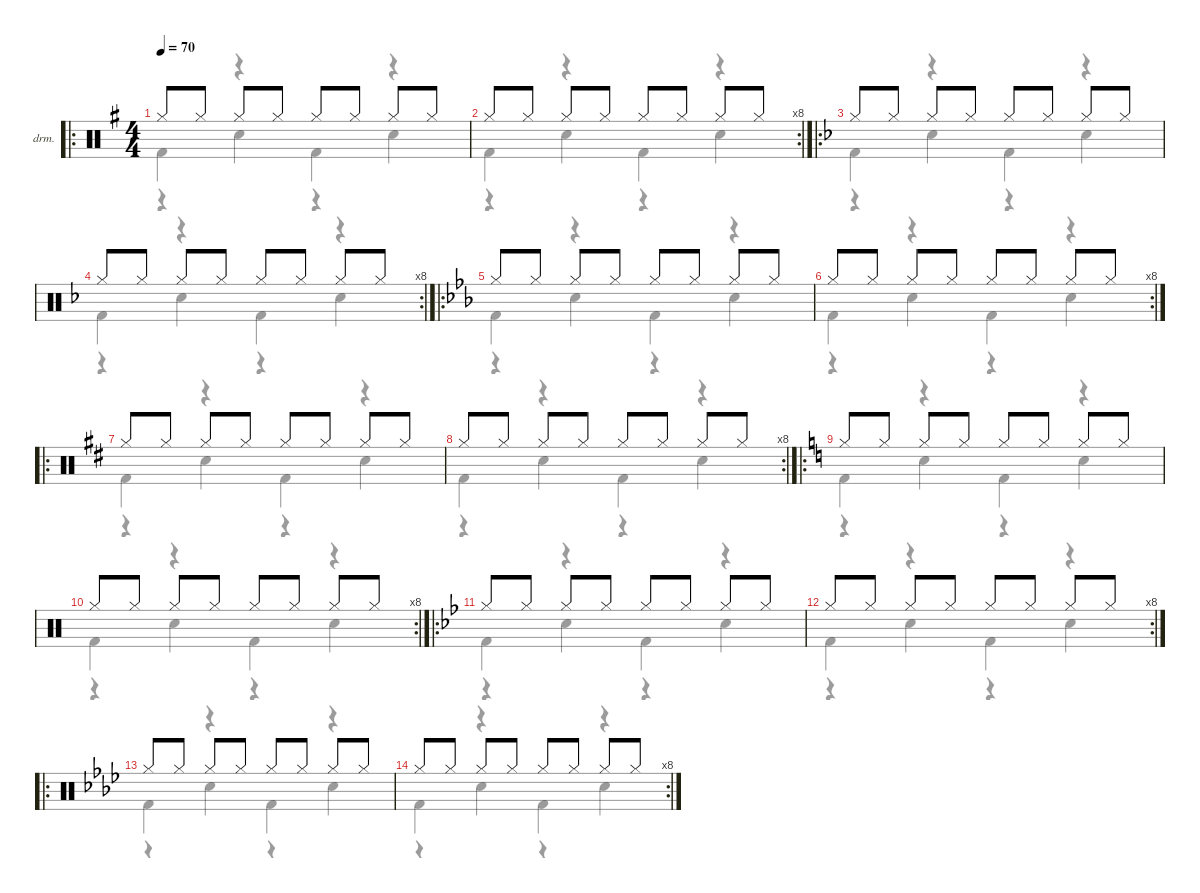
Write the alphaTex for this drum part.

\defaultSystemsLayout 4
\hideDynamics
\bracketExtendMode nobrackets
\firstSystemTrackNameOrientation horizontal
\otherSystemsTrackNameOrientation horizontal
\track ("Drumkit" "drm.") {defaultSystemsLayout 1 instrument percussion}
\staff {score}
\articulation defaults
\voice
\ro
\ts (4 4)
\tempo 70
\clef neutral
\ks g "Hi-Hat (closed)"{acc forcenatural}.8{dy fff beam Up} "Hi-Hat (closed)"{acc forcenatural}.8{beam Up} "Hi-Hat (closed)"{acc forcenatural}.8{beam Up} "Hi-Hat (closed)"{acc forcenatural}.8{beam Up} "Hi-Hat (closed)"{acc forcenatural}.8{beam Up} "Hi-Hat (closed)"{acc forcenatural}.8{beam Up} "Hi-Hat (closed)"{acc forcenatural}.8{beam Up} "Hi-Hat (closed)"{acc forcenatural}.8{beam Up}
|
\rc 8 "Hi-Hat (closed)"{acc forcenatural}.8{beam Up} "Hi-Hat (closed)"{acc forcenatural}.8{beam Up} "Hi-Hat (closed)"{acc forcenatural}.8{beam Up} "Hi-Hat (closed)"{acc forcenatural}.8{beam Up} "Hi-Hat (closed)"{acc forcenatural}.8{beam Up} "Hi-Hat (closed)"{acc forcenatural}.8{beam Up} "Hi-Hat (closed)"{acc forcenatural}.8{beam Up} "Hi-Hat (closed)"{acc forcenatural}.8{beam Up}
|
\ro
\ks f "Hi-Hat (closed)"{acc forcenatural}.8{beam Up} "Hi-Hat (closed)"{acc forcenatural}.8{beam Up} "Hi-Hat (closed)"{acc forcenatural}.8{beam Up} "Hi-Hat (closed)"{acc forcenatural}.8{beam Up} "Hi-Hat (closed)"{acc forcenatural}.8{beam Up} "Hi-Hat (closed)"{acc forcenatural}.8{beam Up} "Hi-Hat (closed)"{acc forcenatural}.8{beam Up} "Hi-Hat (closed)"{acc forcenatural}.8{beam Up}
|
\rc 8 "Hi-Hat (closed)"{acc forcenatural}.8{beam Up} "Hi-Hat (closed)"{acc forcenatural}.8{beam Up} "Hi-Hat (closed)"{acc forcenatural}.8{beam Up} "Hi-Hat (closed)"{acc forcenatural}.8{beam Up} "Hi-Hat (closed)"{acc forcenatural}.8{beam Up} "Hi-Hat (closed)"{acc forcenatural}.8{beam Up} "Hi-Hat (closed)"{acc forcenatural}.8{beam Up} "Hi-Hat (closed)"{acc forcenatural}.8{beam Up}
|
\ro
\ks eb "Hi-Hat (closed)"{acc forcenatural}.8{beam Up} "Hi-Hat (closed)"{acc forcenatural}.8{beam Up} "Hi-Hat (closed)"{acc forcenatural}.8{beam Up} "Hi-Hat (closed)"{acc forcenatural}.8{beam Up} "Hi-Hat (closed)"{acc forcenatural}.8{beam Up} "Hi-Hat (closed)"{acc forcenatural}.8{beam Up} "Hi-Hat (closed)"{acc forcenatural}.8{beam Up} "Hi-Hat (closed)"{acc forcenatural}.8{beam Up}
|
\rc 8 "Hi-Hat (closed)"{acc forcenatural}.8{beam Up} "Hi-Hat (closed)"{acc forcenatural}.8{beam Up} "Hi-Hat (closed)"{acc forcenatural}.8{beam Up} "Hi-Hat (closed)"{acc forcenatural}.8{beam Up} "Hi-Hat (closed)"{acc forcenatural}.8{beam Up} "Hi-Hat (closed)"{acc forcenatural}.8{beam Up} "Hi-Hat (closed)"{acc forcenatural}.8{beam Up} "Hi-Hat (closed)"{acc forcenatural}.8{beam Up}
|
\ro
\ks d "Hi-Hat (closed)"{acc forcenatural}.8{beam Up} "Hi-Hat (closed)"{acc forcenatural}.8{beam Up} "Hi-Hat (closed)"{acc forcenatural}.8{beam Up} "Hi-Hat (closed)"{acc forcenatural}.8{beam Up} "Hi-Hat (closed)"{acc forcenatural}.8{beam Up} "Hi-Hat (closed)"{acc forcenatural}.8{beam Up} "Hi-Hat (closed)"{acc forcenatural}.8{beam Up} "Hi-Hat (closed)"{acc forcenatural}.8{beam Up}
|
\rc 8 "Hi-Hat (closed)"{acc forcenatural}.8{beam Up} "Hi-Hat (closed)"{acc forcenatural}.8{beam Up} "Hi-Hat (closed)"{acc forcenatural}.8{beam Up} "Hi-Hat (closed)"{acc forcenatural}.8{beam Up} "Hi-Hat (closed)"{acc forcenatural}.8{beam Up} "Hi-Hat (closed)"{acc forcenatural}.8{beam Up} "Hi-Hat (closed)"{acc forcenatural}.8{beam Up} "Hi-Hat (closed)"{acc forcenatural}.8{beam Up}
|
\ro
\ks c "Hi-Hat (closed)".8{beam Up} "Hi-Hat (closed)".8{beam Up} "Hi-Hat (closed)".8{beam Up} "Hi-Hat (closed)".8{beam Up} "Hi-Hat (closed)".8{beam Up} "Hi-Hat (closed)".8{beam Up} "Hi-Hat (closed)".8{beam Up} "Hi-Hat (closed)".8{beam Up}
|
\rc 8 "Hi-Hat (closed)".8{beam Up} "Hi-Hat (closed)".8{beam Up} "Hi-Hat (closed)".8{beam Up} "Hi-Hat (closed)".8{beam Up} "Hi-Hat (closed)".8{beam Up} "Hi-Hat (closed)".8{beam Up} "Hi-Hat (closed)".8{beam Up} "Hi-Hat (closed)".8{beam Up}
|
\ro
\ks bb "Hi-Hat (closed)"{acc forcenatural}.8{beam Up} "Hi-Hat (closed)"{acc forcenatural}.8{beam Up} "Hi-Hat (closed)"{acc forcenatural}.8{beam Up} "Hi-Hat (closed)"{acc forcenatural}.8{beam Up} "Hi-Hat (closed)"{acc forcenatural}.8{beam Up} "Hi-Hat (closed)"{acc forcenatural}.8{beam Up} "Hi-Hat (closed)"{acc forcenatural}.8{beam Up} "Hi-Hat (closed)"{acc forcenatural}.8{beam Up}
|
\rc 8 "Hi-Hat (closed)"{acc forcenatural}.8{beam Up} "Hi-Hat (closed)"{acc forcenatural}.8{beam Up} "Hi-Hat (closed)"{acc forcenatural}.8{beam Up} "Hi-Hat (closed)"{acc forcenatural}.8{beam Up} "Hi-Hat (closed)"{acc forcenatural}.8{beam Up} "Hi-Hat (closed)"{acc forcenatural}.8{beam Up} "Hi-Hat (closed)"{acc forcenatural}.8{beam Up} "Hi-Hat (closed)"{acc forcenatural}.8{beam Up}
|
\ro
\ks ab "Hi-Hat (closed)"{acc forcenatural}.8{beam Up} "Hi-Hat (closed)"{acc forcenatural}.8{beam Up} "Hi-Hat (closed)"{acc forcenatural}.8{beam Up} "Hi-Hat (closed)"{acc forcenatural}.8{beam Up} "Hi-Hat (closed)"{acc forcenatural}.8{beam Up} "Hi-Hat (closed)"{acc forcenatural}.8{beam Up} "Hi-Hat (closed)"{acc forcenatural}.8{beam Up} "Hi-Hat (closed)"{acc forcenatural}.8{beam Up}
|
\rc 8 "Hi-Hat (closed)"{acc forcenatural}.8{beam Up} "Hi-Hat (closed)"{acc forcenatural}.8{beam Up} "Hi-Hat (closed)"{acc forcenatural}.8{beam Up} "Hi-Hat (closed)"{acc forcenatural}.8{beam Up} "Hi-Hat (closed)"{acc forcenatural}.8{beam Up} "Hi-Hat (closed)"{acc forcenatural}.8{beam Up} "Hi-Hat (closed)"{acc forcenatural}.8{beam Up} "Hi-Hat (closed)"{acc forcenatural}.8{beam Up}
|
\voice
\clef neutral
\ks g "Kick (hit) 2"{acc forcenatural}.4{dy ppp}
r.4 "Kick (hit) 2"{acc forcenatural}.4 r.4 |
"Kick (hit) 2"{acc forcenatural}.4 r.4 "Kick (hit) 2"{acc forcenatural}.4 r.4 |
\ks f "Kick (hit) 2"{acc forcenatural}.4
r.4 "Kick (hit) 2"{acc forcenatural}.4 r.4 |
"Kick (hit) 2"{acc forcenatural}.4 r.4 "Kick (hit) 2"{acc forcenatural}.4 r.4 |
\ks eb "Kick (hit) 2"{acc forcenatural}.4
r.4 "Kick (hit) 2"{acc forcenatural}.4 r.4 |
"Kick (hit) 2"{acc forcenatural}.4 r.4 "Kick (hit) 2"{acc forcenatural}.4 r.4 |
\ks d "Kick (hit) 2"{acc forcenatural}.4
r.4 "Kick (hit) 2"{acc forcenatural}.4 r.4 |
"Kick (hit) 2"{acc forcenatural}.4 r.4 "Kick (hit) 2"{acc forcenatural}.4 r.4 |
\ks c "Kick (hit) 2".4
r.4 "Kick (hit) 2".4 r.4 |
"Kick (hit) 2".4 r.4 "Kick (hit) 2".4 r.4 |
\ks bb "Kick (hit) 2"{acc forcenatural}.4
r.4 "Kick (hit) 2"{acc forcenatural}.4 r.4 |
"Kick (hit) 2"{acc forcenatural}.4 r.4 "Kick (hit) 2"{acc forcenatural}.4 r.4 |
\ks ab "Kick (hit) 2"{acc forcenatural}.4
r.4 "Kick (hit) 2"{acc forcenatural}.4 r.4 |
"Kick (hit) 2"{acc forcenatural}.4 r.4 "Kick (hit) 2"{acc forcenatural}.4 r.4 |
\voice
\clef neutral
\ottava regular
\simile none
\ks g
r.4{dy mp} "Snare (hit) 2"{acc forcenatural}.4 r.4 "Snare (hit) 2"{acc forcenatural}.4 |
r.4 "Snare (hit) 2"{acc forcenatural}.4 r.4 "Snare (hit) 2"{acc forcenatural}.4 |
\ks f
r.4 "Snare (hit) 2"{acc forcenatural}.4 r.4 "Snare (hit) 2"{acc forcenatural}.4 |
r.4 "Snare (hit) 2"{acc forcenatural}.4 r.4 "Snare (hit) 2"{acc forcenatural}.4 |
\ks eb
r.4 "Snare (hit) 2"{acc forcenatural}.4 r.4 "Snare (hit) 2"{acc forcenatural}.4 |
r.4 "Snare (hit) 2"{acc forcenatural}.4 r.4 "Snare (hit) 2"{acc forcenatural}.4 |
\ks d
r.4 "Snare (hit) 2"{acc forcenatural}.4 r.4 "Snare (hit) 2"{acc forcenatural}.4 |
r.4 "Snare (hit) 2"{acc forcenatural}.4 r.4 "Snare (hit) 2"{acc forcenatural}.4 |
\ks c
r.4 "Snare (hit) 2".4 r.4 "Snare (hit) 2".4 |
r.4 "Snare (hit) 2".4 r.4 "Snare (hit) 2".4 |
\ks bb
r.4 "Snare (hit) 2"{acc forcenatural}.4 r.4 "Snare (hit) 2"{acc forcenatural}.4 |
r.4 "Snare (hit) 2"{acc forcenatural}.4 r.4 "Snare (hit) 2"{acc forcenatural}.4 |
\ks ab
r.4 "Snare (hit) 2"{acc forcenatural}.4 r.4 "Snare (hit) 2"{acc forcenatural}.4 |
r.4 "Snare (hit) 2"{acc forcenatural}.4 r.4 "Snare (hit) 2"{acc forcenatural}.4 |
